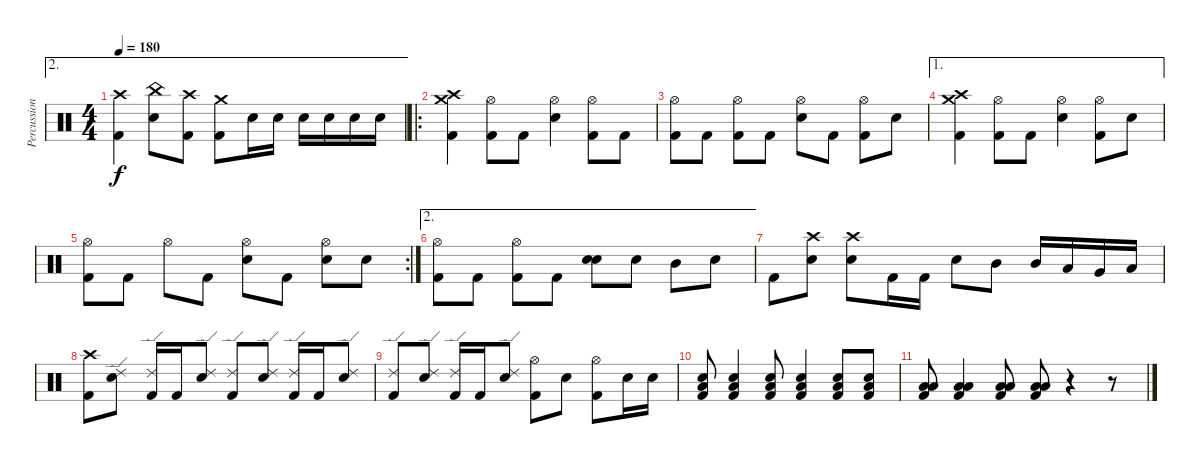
\track ("Percussions" "Percussion") {instrument percussion}
\staff {score}
\articulation defaults
\ae 2
\ts (4 4)
\tempo 180
\clef neutral
\ks c
("Crash high (hit)" "Kick (hit) 2").4{dy f} ("China (hit)" "Snare (hit) 2").8 ("Crash high (hit)" "Kick (hit) 2").8 ("Crash medium (hit)" "Kick (hit) 2").8 "Snare (hit) 2".16 "Snare (hit) 2".16 "Snare (hit) 2".16 "Snare (hit) 2".16 "Snare (hit) 2".16 "Snare (hit) 2".16 |
\ro
("Crash medium (hit)" "Crash high (hit)" "Kick (hit) 2").4 ("Hi-Hat (open)" "Kick (hit) 2").8 "Kick (hit) 2".8 ("Hi-Hat (open)" "Snare (hit) 2").4 ("Hi-Hat (open)" "Kick (hit) 2").8 "Kick (hit) 2".8 |
("Hi-Hat (open)" "Kick (hit) 2").8 "Kick (hit) 2".8 ("Hi-Hat (open)" "Kick (hit) 2").8 "Kick (hit) 2".8 ("Hi-Hat (open)" "Snare (hit) 2").8 "Kick (hit) 2".8 ("Hi-Hat (open)" "Kick (hit) 2").8 "Snare (hit) 2".8 |
\ae 1
("Crash medium (hit)" "Crash high (hit)" "Kick (hit) 2").4 ("Hi-Hat (open)" "Kick (hit) 2").8 "Kick (hit) 2".8 ("Hi-Hat (open)" "Snare (hit) 2").4 ("Hi-Hat (open)" "Kick (hit) 2").8 "Snare (hit) 2".8 |
\rc 2
("Hi-Hat (open)" "Kick (hit) 2").8 "Kick (hit) 2".8 "Hi-Hat (open)".8 "Kick (hit) 2".8 ("Hi-Hat (open)" "Snare (hit) 2").8 "Kick (hit) 2".8 ("Hi-Hat (open)" "Snare (hit) 2").8 "Snare (hit) 2".8 |
\ae 2
("Hi-Hat (open)" "Kick (hit) 2").8 "Kick (hit) 2".8 ("Hi-Hat (open)" "Kick (hit) 2").8 "Kick (hit) 2".8 ("Snare (hit) 2" "Snare (hit) 2").8{bd 240} "Snare (hit) 2".8 "Mid Tom (hit)".8 "Snare (hit) 2".8 |
"Kick (hit) 2".8 ("Crash high (hit)" "Snare (hit) 2").8 ("Crash high (hit)" "Snare (hit) 2").8 "Kick (hit) 2".16 "Kick (hit) 2".16 "Snare (hit) 2".8 "Mid Tom (hit)".8 "Mid Tom (hit)".16 "Low Tom (hit)".16 "Very Low Tom (hit)".16 "Low Floor Tom (hit)".16 |
("Crash high (hit)" "Kick (hit) 2").8 ("Ride (edge) 2" "Snare (hit) 2").8 ("Ride (edge) 2" "Kick (hit) 2").16 "Kick (hit) 2".16 ("Ride (edge) 2" "Snare (hit) 2").8 ("Ride (edge) 2" "Kick (hit) 2").8 ("Ride (edge) 2" "Snare (hit) 2").8 ("Ride (edge) 2" "Kick (hit) 2").16 "Kick (hit) 2".16 ("Ride (edge) 2" "Snare (hit) 2").8 |
("Ride (edge) 2" "Kick (hit) 2").8 ("Ride (edge) 2" "Snare (hit) 2").8 ("Ride (edge) 2" "Kick (hit) 2").16 "Kick (hit) 2".16 ("Ride (edge) 2" "Snare (hit) 2").8 ("Hi-Hat (open)" "Kick (hit) 2").8 "Snare (hit) 2".8 ("Hi-Hat (open)" "Kick (hit) 2").8 "Snare (hit) 2".16 "Snare (hit) 2".16 |
("Low Floor Tom (hit)" "Snare (hit) 2" "Kick (hit) 2").8 ("Low Floor Tom (hit)" "Snare (hit) 2" "Kick (hit) 2").4 ("Low Floor Tom (hit)" "Snare (hit) 2" "Kick (hit) 2").8 ("Low Floor Tom (hit)" "Snare (hit) 2" "Kick (hit) 2").4 ("Low Floor Tom (hit)" "Snare (hit) 2" "Kick (hit) 2").8 ("Low Floor Tom (hit)" "Snare (hit) 2" "Kick (hit) 2").8 |
("Low Floor Tom (hit)" "Low Floor Tom (hit)" "Kick (hit) 2").8 ("Low Floor Tom (hit)" "Low Floor Tom (hit)" "Kick (hit) 2").4 ("Low Floor Tom (hit)" "Low Floor Tom (hit)" "Kick (hit) 2").8 ("Low Floor Tom (hit)" "Low Floor Tom (hit)" "Kick (hit) 2").8 r.4 r.8
